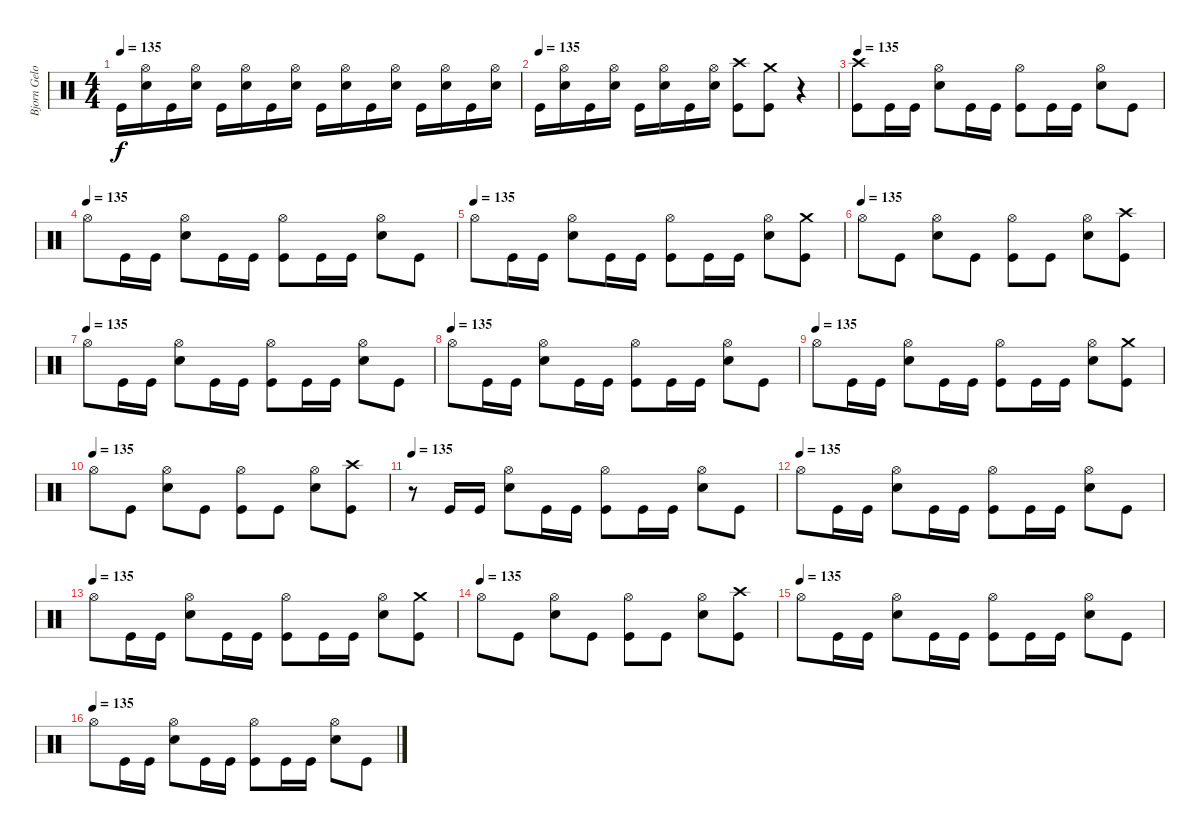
\track ("Bjorn Gelotte-Drum" "Bjorn Gelo") {instrument percussion}
\staff {score}
\articulation defaults
\ts (4 4)
\tempo 135
\clef neutral
\ks c "Kick (hit)".16{dy f}
("Electric Snare (hit)" "Hi-Hat (open)").16 "Kick (hit)".16 ("Electric Snare (hit)" "Hi-Hat (open)").16 "Kick (hit)".16 ("Electric Snare (hit)" "Hi-Hat (open)").16 "Kick (hit)".16 ("Electric Snare (hit)" "Hi-Hat (open)").16 "Kick (hit)".16 ("Electric Snare (hit)" "Hi-Hat (open)").16 "Kick (hit)".16 ("Electric Snare (hit)" "Hi-Hat (open)").16 "Kick (hit)".16 ("Electric Snare (hit)" "Hi-Hat (open)").16 "Kick (hit)".16 ("Electric Snare (hit)" "Hi-Hat (open)").16 |
\tempo (135)
"Kick (hit)".16 ("Electric Snare (hit)" "Hi-Hat (open)").16 "Kick (hit)".16 ("Electric Snare (hit)" "Hi-Hat (open)").16 "Kick (hit)".16 ("Electric Snare (hit)" "Hi-Hat (open)").16 "Kick (hit)".16 ("Electric Snare (hit)" "Hi-Hat (open)").16 ("Kick (hit)" "Crash high (hit)").8 ("Kick (hit)" "Crash medium (hit)").8 r.4 |
\tempo 135
("Kick (hit)" "Crash high (hit)").8 "Kick (hit)".16 "Kick (hit)".16 ("Electric Snare (hit)" "Hi-Hat (open)").8 "Kick (hit)".16 "Kick (hit)".16 ("Kick (hit)" "Hi-Hat (open)").8 "Kick (hit)".16 "Kick (hit)".16 ("Electric Snare (hit)" "Hi-Hat (open)").8 "Kick (hit)".8 |
\tempo (135)
"Hi-Hat (open)".8 "Kick (hit)".16 "Kick (hit)".16 ("Electric Snare (hit)" "Hi-Hat (open)").8 "Kick (hit)".16 "Kick (hit)".16 ("Kick (hit)" "Hi-Hat (open)").8 "Kick (hit)".16 "Kick (hit)".16 ("Electric Snare (hit)" "Hi-Hat (open)").8 "Kick (hit)".8 |
\tempo (135)
"Hi-Hat (open)".8 "Kick (hit)".16 "Kick (hit)".16 ("Electric Snare (hit)" "Hi-Hat (open)").8 "Kick (hit)".16 "Kick (hit)".16 ("Kick (hit)" "Hi-Hat (open)").8 "Kick (hit)".16 "Kick (hit)".16 ("Electric Snare (hit)" "Hi-Hat (open)").8 ("Kick (hit)" "Crash medium (hit)").8 |
\tempo (135)
"Hi-Hat (open)".8 "Kick (hit)".8 ("Electric Snare (hit)" "Hi-Hat (open)").8 "Kick (hit)".8 ("Kick (hit)" "Hi-Hat (open)").8 "Kick (hit)".8 ("Electric Snare (hit)" "Hi-Hat (open)").8 ("Kick (hit)" "Crash high (hit)").8 |
\tempo (135)
"Hi-Hat (open)".8 "Kick (hit)".16 "Kick (hit)".16 ("Electric Snare (hit)" "Hi-Hat (open)").8 "Kick (hit)".16 "Kick (hit)".16 ("Kick (hit)" "Hi-Hat (open)").8 "Kick (hit)".16 "Kick (hit)".16 ("Electric Snare (hit)" "Hi-Hat (open)").8 "Kick (hit)".8 |
\tempo (135)
"Hi-Hat (open)".8 "Kick (hit)".16 "Kick (hit)".16 ("Electric Snare (hit)" "Hi-Hat (open)").8 "Kick (hit)".16 "Kick (hit)".16 ("Kick (hit)" "Hi-Hat (open)").8 "Kick (hit)".16 "Kick (hit)".16 ("Electric Snare (hit)" "Hi-Hat (open)").8 "Kick (hit)".8 |
\tempo (135)
"Hi-Hat (open)".8 "Kick (hit)".16 "Kick (hit)".16 ("Electric Snare (hit)" "Hi-Hat (open)").8 "Kick (hit)".16 "Kick (hit)".16 ("Kick (hit)" "Hi-Hat (open)").8 "Kick (hit)".16 "Kick (hit)".16 ("Electric Snare (hit)" "Hi-Hat (open)").8 ("Kick (hit)" "Crash medium (hit)").8 |
\tempo (135)
"Hi-Hat (open)".8 "Kick (hit)".8 ("Electric Snare (hit)" "Hi-Hat (open)").8 "Kick (hit)".8 ("Kick (hit)" "Hi-Hat (open)").8 "Kick (hit)".8 ("Electric Snare (hit)" "Hi-Hat (open)").8 ("Kick (hit)" "Crash high (hit)").8 |
\tempo 135
r.8 "Kick (hit)".16 "Kick (hit)".16 ("Electric Snare (hit)" "Hi-Hat (open)").8 "Kick (hit)".16 "Kick (hit)".16 ("Kick (hit)" "Hi-Hat (open)").8 "Kick (hit)".16 "Kick (hit)".16 ("Electric Snare (hit)" "Hi-Hat (open)").8 "Kick (hit)".8 |
\tempo (135)
"Hi-Hat (open)".8 "Kick (hit)".16 "Kick (hit)".16 ("Electric Snare (hit)" "Hi-Hat (open)").8 "Kick (hit)".16 "Kick (hit)".16 ("Kick (hit)" "Hi-Hat (open)").8 "Kick (hit)".16 "Kick (hit)".16 ("Electric Snare (hit)" "Hi-Hat (open)").8 "Kick (hit)".8 |
\tempo (135)
"Hi-Hat (open)".8 "Kick (hit)".16 "Kick (hit)".16 ("Electric Snare (hit)" "Hi-Hat (open)").8 "Kick (hit)".16 "Kick (hit)".16 ("Kick (hit)" "Hi-Hat (open)").8 "Kick (hit)".16 "Kick (hit)".16 ("Electric Snare (hit)" "Hi-Hat (open)").8 ("Kick (hit)" "Crash medium (hit)").8 |
\tempo (135)
"Hi-Hat (open)".8 "Kick (hit)".8 ("Electric Snare (hit)" "Hi-Hat (open)").8 "Kick (hit)".8 ("Kick (hit)" "Hi-Hat (open)").8 "Kick (hit)".8 ("Electric Snare (hit)" "Hi-Hat (open)").8 ("Kick (hit)" "Crash high (hit)").8 |
\tempo (135)
"Hi-Hat (open)".8 "Kick (hit)".16 "Kick (hit)".16 ("Electric Snare (hit)" "Hi-Hat (open)").8 "Kick (hit)".16 "Kick (hit)".16 ("Kick (hit)" "Hi-Hat (open)").8 "Kick (hit)".16 "Kick (hit)".16 ("Electric Snare (hit)" "Hi-Hat (open)").8 "Kick (hit)".8 |
\tempo (135)
"Hi-Hat (open)".8 "Kick (hit)".16 "Kick (hit)".16 ("Electric Snare (hit)" "Hi-Hat (open)").8 "Kick (hit)".16 "Kick (hit)".16 ("Kick (hit)" "Hi-Hat (open)").8 "Kick (hit)".16 "Kick (hit)".16 ("Electric Snare (hit)" "Hi-Hat (open)").8 "Kick (hit)".8
